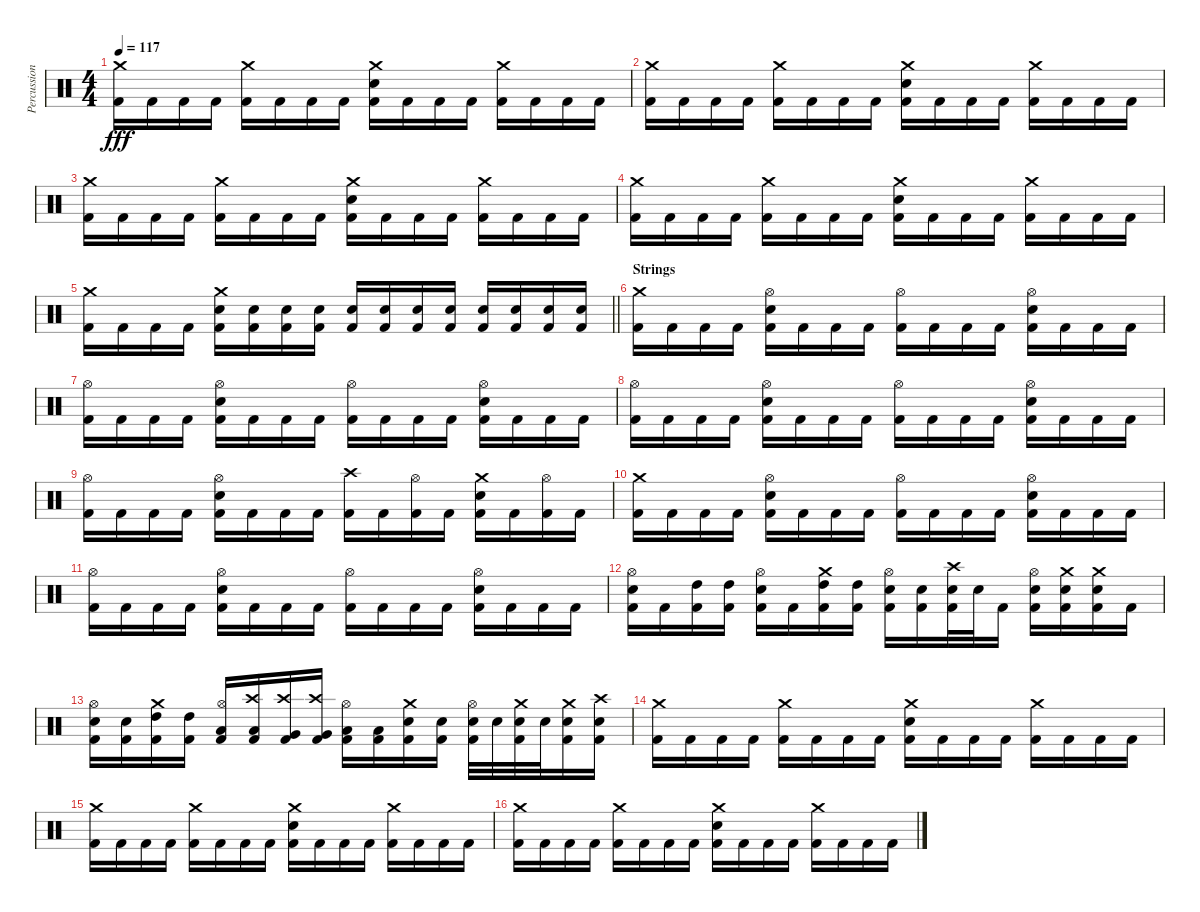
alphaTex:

\track ("Percussioni" "Percussion") {instrument percussion}
\staff {score}
\articulation defaults
\ts (4 4)
\tempo 117
\clef neutral
\ks c
("Crash medium (hit)" "Kick (hit) 2").16{dy fff} "Kick (hit) 2".16 "Kick (hit) 2".16 "Kick (hit) 2".16 ("Crash medium (hit)" "Kick (hit) 2").16 "Kick (hit) 2".16 "Kick (hit) 2".16 "Kick (hit) 2".16 ("Crash medium (hit)" "Electric Snare (hit)" "Kick (hit) 2").16 "Kick (hit) 2".16 "Kick (hit) 2".16 "Kick (hit) 2".16 ("Crash medium (hit)" "Kick (hit) 2").16 "Kick (hit) 2".16 "Kick (hit) 2".16 "Kick (hit) 2".16 |
("Crash medium (hit)" "Kick (hit) 2").16 "Kick (hit) 2".16 "Kick (hit) 2".16 "Kick (hit) 2".16 ("Crash medium (hit)" "Kick (hit) 2").16 "Kick (hit) 2".16 "Kick (hit) 2".16 "Kick (hit) 2".16 ("Crash medium (hit)" "Electric Snare (hit)" "Kick (hit) 2").16 "Kick (hit) 2".16 "Kick (hit) 2".16 "Kick (hit) 2".16 ("Crash medium (hit)" "Kick (hit) 2").16 "Kick (hit) 2".16 "Kick (hit) 2".16 "Kick (hit) 2".16 |
("Crash medium (hit)" "Kick (hit) 2").16 "Kick (hit) 2".16 "Kick (hit) 2".16 "Kick (hit) 2".16 ("Crash medium (hit)" "Kick (hit) 2").16 "Kick (hit) 2".16 "Kick (hit) 2".16 "Kick (hit) 2".16 ("Crash medium (hit)" "Electric Snare (hit)" "Kick (hit) 2").16 "Kick (hit) 2".16 "Kick (hit) 2".16 "Kick (hit) 2".16 ("Crash medium (hit)" "Kick (hit) 2").16 "Kick (hit) 2".16 "Kick (hit) 2".16 "Kick (hit) 2".16 |
("Crash medium (hit)" "Kick (hit) 2").16 "Kick (hit) 2".16 "Kick (hit) 2".16 "Kick (hit) 2".16 ("Crash medium (hit)" "Kick (hit) 2").16 "Kick (hit) 2".16 "Kick (hit) 2".16 "Kick (hit) 2".16 ("Crash medium (hit)" "Electric Snare (hit)" "Kick (hit) 2").16 "Kick (hit) 2".16 "Kick (hit) 2".16 "Kick (hit) 2".16 ("Crash medium (hit)" "Kick (hit) 2").16 "Kick (hit) 2".16 "Kick (hit) 2".16 "Kick (hit) 2".16 |
\barLineRight lightlight
("Crash medium (hit)" "Kick (hit) 2").16 "Kick (hit) 2".16 "Kick (hit) 2".16 "Kick (hit) 2".16 ("Crash medium (hit)" "Snare (hit) 2" "Kick (hit) 2").16 ("Snare (hit) 2" "Kick (hit) 2").16 ("Electric Snare (hit)" "Kick (hit) 2").16 ("Electric Snare (hit)" "Kick (hit) 2").16 ("Electric Snare (hit)" "Kick (hit) 2").16 ("Electric Snare (hit)" "Kick (hit) 2").16 ("Snare (hit) 2" "Kick (hit) 2").16 ("Snare (hit) 2" "Kick (hit) 2").16 ("Electric Snare (hit)" "Kick (hit) 2").16 ("Electric Snare (hit)" "Kick (hit) 2").16 ("Electric Snare (hit)" "Kick (hit) 2").16 ("Electric Snare (hit)" "Kick (hit) 2").16 |
\section ("" "Strings")
("Crash medium (hit)" "Kick (hit) 2").16 "Kick (hit) 2".16 "Kick (hit) 2".16 "Kick (hit) 2".16 ("Hi-Hat (open)" "Electric Snare (hit)" "Kick (hit) 2").16 "Kick (hit) 2".16 "Kick (hit) 2".16 "Kick (hit) 2".16 ("Hi-Hat (open)" "Kick (hit) 2").16 "Kick (hit) 2".16 "Kick (hit) 2".16 "Kick (hit) 2".16 ("Hi-Hat (open)" "Electric Snare (hit)" "Kick (hit) 2").16 "Kick (hit) 2".16 "Kick (hit) 2".16 "Kick (hit) 2".16 |
("Hi-Hat (open)" "Kick (hit) 2").16 "Kick (hit) 2".16 "Kick (hit) 2".16 "Kick (hit) 2".16 ("Hi-Hat (open)" "Electric Snare (hit)" "Kick (hit) 2").16 "Kick (hit) 2".16 "Kick (hit) 2".16 "Kick (hit) 2".16 ("Hi-Hat (open)" "Kick (hit) 2").16 "Kick (hit) 2".16 "Kick (hit) 2".16 "Kick (hit) 2".16 ("Hi-Hat (open)" "Electric Snare (hit)" "Kick (hit) 2").16 "Kick (hit) 2".16 "Kick (hit) 2".16 "Kick (hit) 2".16 |
("Hi-Hat (open)" "Kick (hit) 2").16 "Kick (hit) 2".16 "Kick (hit) 2".16 "Kick (hit) 2".16 ("Hi-Hat (open)" "Electric Snare (hit)" "Kick (hit) 2").16 "Kick (hit) 2".16 "Kick (hit) 2".16 "Kick (hit) 2".16 ("Hi-Hat (open)" "Kick (hit) 2").16 "Kick (hit) 2".16 "Kick (hit) 2".16 "Kick (hit) 2".16 ("Hi-Hat (open)" "Electric Snare (hit)" "Kick (hit) 2").16 "Kick (hit) 2".16 "Kick (hit) 2".16 "Kick (hit) 2".16 |
("Hi-Hat (open)" "Kick (hit) 2").16 "Kick (hit) 2".16 "Kick (hit) 2".16 "Kick (hit) 2".16 ("Hi-Hat (open)" "Electric Snare (hit)" "Kick (hit) 2").16 "Kick (hit) 2".16 "Kick (hit) 2".16 "Kick (hit) 2".16 ("Crash high (hit)" "Kick (hit) 2").16 "Kick (hit) 2".16 ("Hi-Hat (open)" "Kick (hit) 2").16 "Kick (hit) 2".16 ("Crash medium (hit)" "Electric Snare (hit)" "Kick (hit) 2").16 "Kick (hit) 2".16 ("Hi-Hat (open)" "Kick (hit) 2").16 "Kick (hit) 2".16 |
("Crash medium (hit)" "Kick (hit) 2").16 "Kick (hit) 2".16 "Kick (hit) 2".16 "Kick (hit) 2".16 ("Hi-Hat (open)" "Electric Snare (hit)" "Kick (hit) 2").16 "Kick (hit) 2".16 "Kick (hit) 2".16 "Kick (hit) 2".16 ("Hi-Hat (open)" "Kick (hit) 2").16 "Kick (hit) 2".16 "Kick (hit) 2".16 "Kick (hit) 2".16 ("Hi-Hat (open)" "Electric Snare (hit)" "Kick (hit) 2").16 "Kick (hit) 2".16 "Kick (hit) 2".16 "Kick (hit) 2".16 |
("Hi-Hat (open)" "Kick (hit) 2").16 "Kick (hit) 2".16 "Kick (hit) 2".16 "Kick (hit) 2".16 ("Hi-Hat (open)" "Electric Snare (hit)" "Kick (hit) 2").16 "Kick (hit) 2".16 "Kick (hit) 2".16 "Kick (hit) 2".16 ("Hi-Hat (open)" "Kick (hit) 2").16 "Kick (hit) 2".16 "Kick (hit) 2".16 "Kick (hit) 2".16 ("Hi-Hat (open)" "Electric Snare (hit)" "Kick (hit) 2").16 "Kick (hit) 2".16 "Kick (hit) 2".16 "Kick (hit) 2".16 |
("Hi-Hat (open)" "Electric Snare (hit)" "Kick (hit) 2").16 "Kick (hit) 2".16 ("High Tom (hit)" "Kick (hit) 2").16 ("High Tom (hit)" "Kick (hit) 2").16 ("Hi-Hat (open)" "Electric Snare (hit)" "Kick (hit) 2").16 "Kick (hit) 2".16 ("Crash medium (hit)" "High Tom (hit)" "Kick (hit) 2").16 ("High Tom (hit)" "Kick (hit) 2").16 ("Hi-Hat (open)" "Electric Snare (hit)" "Kick (hit) 2").16 ("Electric Snare (hit)" "Kick (hit) 2").16 ("Crash high (hit)" "Snare (hit) 2" "Kick (hit) 2").32 "Snare (hit) 2".32 "Kick (hit) 2".16 ("Hi-Hat (open)" "Electric Snare (hit)" "Kick (hit) 2").16 ("Crash medium (hit)" "Electric Snare (hit)" "Kick (hit) 2").16 ("Crash medium (hit)" "Electric Snare (hit)" "Kick (hit) 2").16 "Kick (hit) 2".16 |
("Hi-Hat (open)" "Electric Snare (hit)" "Kick (hit) 2").16 ("Electric Snare (hit)" "Kick (hit) 2").16 ("Crash medium (hit)" "High Tom (hit)" "Kick (hit) 2").16 ("High Tom (hit)" "Kick (hit) 2").16 ("Hi-Hat (open)" "Low Tom (hit)" "Kick (hit) 2").16 ("Crash high (hit)" "Low Tom (hit)" "Kick (hit) 2").16 ("Crash high (hit)" "Very Low Tom (hit)" "Kick (hit) 2").16 ("Crash high (hit)" "Very Low Tom (hit)" "Kick (hit) 2").16 ("Hi-Hat (open)" "Low Floor Tom (hit)" "Kick (hit) 2").16 ("Low Floor Tom (hit)" "Kick (hit) 2").16 ("Crash medium (hit)" "Electric Snare (hit)" "Kick (hit) 2").16 ("Electric Snare (hit)" "Kick (hit) 2").16 ("Hi-Hat (open)" "Electric Snare (hit)" "Kick (hit) 2").32 "Electric Snare (hit)".32 ("Crash medium (hit)" "Electric Snare (hit)" "Kick (hit) 2").32 "Electric Snare (hit)".32 ("Crash medium (hit)" "Electric Snare (hit)" "Kick (hit) 2").16 ("Crash high (hit)" "Electric Snare (hit)" "Kick (hit) 2").16 |
("Crash medium (hit)" "Kick (hit) 2").16 "Kick (hit) 2".16 "Kick (hit) 2".16 "Kick (hit) 2".16 ("Crash medium (hit)" "Kick (hit) 2").16 "Kick (hit) 2".16 "Kick (hit) 2".16 "Kick (hit) 2".16 ("Crash medium (hit)" "Electric Snare (hit)" "Kick (hit) 2").16 "Kick (hit) 2".16 "Kick (hit) 2".16 "Kick (hit) 2".16 ("Crash medium (hit)" "Kick (hit) 2").16 "Kick (hit) 2".16 "Kick (hit) 2".16 "Kick (hit) 2".16 |
("Crash medium (hit)" "Kick (hit) 2").16 "Kick (hit) 2".16 "Kick (hit) 2".16 "Kick (hit) 2".16 ("Crash medium (hit)" "Kick (hit) 2").16 "Kick (hit) 2".16 "Kick (hit) 2".16 "Kick (hit) 2".16 ("Crash medium (hit)" "Electric Snare (hit)" "Kick (hit) 2").16 "Kick (hit) 2".16 "Kick (hit) 2".16 "Kick (hit) 2".16 ("Crash medium (hit)" "Kick (hit) 2").16 "Kick (hit) 2".16 "Kick (hit) 2".16 "Kick (hit) 2".16 |
("Crash medium (hit)" "Kick (hit) 2").16 "Kick (hit) 2".16 "Kick (hit) 2".16 "Kick (hit) 2".16 ("Crash medium (hit)" "Kick (hit) 2").16 "Kick (hit) 2".16 "Kick (hit) 2".16 "Kick (hit) 2".16 ("Crash medium (hit)" "Electric Snare (hit)" "Kick (hit) 2").16 "Kick (hit) 2".16 "Kick (hit) 2".16 "Kick (hit) 2".16 ("Crash medium (hit)" "Kick (hit) 2").16 "Kick (hit) 2".16 "Kick (hit) 2".16 "Kick (hit) 2".16
